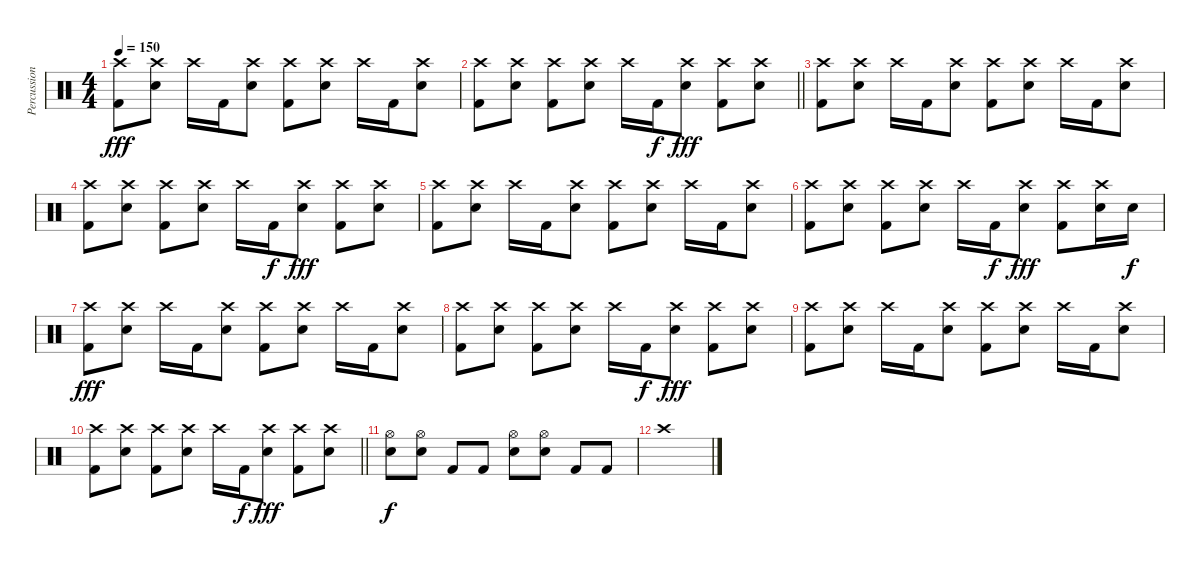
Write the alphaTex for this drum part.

\track ("Percussion" "Percussion") {instrument percussion}
\staff {score}
\articulation defaults
\ts (4 4)
\tempo 150
\clef neutral
\ks c
("Crash high (hit)" "Kick (hit) 2").8{dy fff} ("Crash high (hit)" "Snare (hit) 2").8 "Crash high (hit)".16 "Kick (hit) 2".16 ("Crash high (hit)" "Snare (hit) 2").8 ("Crash high (hit)" "Kick (hit) 2").8 ("Crash high (hit)" "Snare (hit) 2").8 "Crash high (hit)".16 "Kick (hit) 2".16 ("Crash high (hit)" "Snare (hit) 2").8 |
\barLineRight lightlight
("Crash high (hit)" "Kick (hit) 2").8 ("Crash high (hit)" "Snare (hit) 2").8 ("Crash high (hit)" "Kick (hit) 2").8 ("Crash high (hit)" "Snare (hit) 2").8 "Crash high (hit)".16 "Kick (hit) 2".16{dy f} ("Crash high (hit)" "Snare (hit) 2").8{dy fff} ("Crash high (hit)" "Kick (hit) 2").8 ("Crash high (hit)" "Snare (hit) 2").8 |
("Crash high (hit)" "Kick (hit) 2").8 ("Crash high (hit)" "Snare (hit) 2").8 "Crash high (hit)".16 "Kick (hit) 2".16 ("Crash high (hit)" "Snare (hit) 2").8 ("Crash high (hit)" "Kick (hit) 2").8 ("Crash high (hit)" "Snare (hit) 2").8 "Crash high (hit)".16 "Kick (hit) 2".16 ("Crash high (hit)" "Snare (hit) 2").8 |
("Crash high (hit)" "Kick (hit) 2").8 ("Crash high (hit)" "Snare (hit) 2").8 ("Crash high (hit)" "Kick (hit) 2").8 ("Crash high (hit)" "Snare (hit) 2").8 "Crash high (hit)".16 "Kick (hit) 2".16{dy f} ("Crash high (hit)" "Snare (hit) 2").8{dy fff} ("Crash high (hit)" "Kick (hit) 2").8 ("Crash high (hit)" "Snare (hit) 2").8 |
("Crash high (hit)" "Kick (hit) 2").8 ("Crash high (hit)" "Snare (hit) 2").8 "Crash high (hit)".16 "Kick (hit) 2".16 ("Crash high (hit)" "Snare (hit) 2").8 ("Crash high (hit)" "Kick (hit) 2").8 ("Crash high (hit)" "Snare (hit) 2").8 "Crash high (hit)".16 "Kick (hit) 2".16 ("Crash high (hit)" "Snare (hit) 2").8 |
("Crash high (hit)" "Kick (hit) 2").8 ("Crash high (hit)" "Snare (hit) 2").8 ("Crash high (hit)" "Kick (hit) 2").8 ("Crash high (hit)" "Snare (hit) 2").8 "Crash high (hit)".16 "Kick (hit) 2".16{dy f} ("Crash high (hit)" "Snare (hit) 2").8{dy fff} ("Crash high (hit)" "Kick (hit) 2").8 ("Crash high (hit)" "Snare (hit) 2").16 "Snare (hit) 2".16{dy f} |
("Crash high (hit)" "Kick (hit) 2").8{dy fff} ("Crash high (hit)" "Snare (hit) 2").8 "Crash high (hit)".16 "Kick (hit) 2".16 ("Crash high (hit)" "Snare (hit) 2").8 ("Crash high (hit)" "Kick (hit) 2").8 ("Crash high (hit)" "Snare (hit) 2").8 "Crash high (hit)".16 "Kick (hit) 2".16 ("Crash high (hit)" "Snare (hit) 2").8 |
("Crash high (hit)" "Kick (hit) 2").8 ("Crash high (hit)" "Snare (hit) 2").8 ("Crash high (hit)" "Kick (hit) 2").8 ("Crash high (hit)" "Snare (hit) 2").8 "Crash high (hit)".16 "Kick (hit) 2".16{dy f} ("Crash high (hit)" "Snare (hit) 2").8{dy fff} ("Crash high (hit)" "Kick (hit) 2").8 ("Crash high (hit)" "Snare (hit) 2").8 |
("Crash high (hit)" "Kick (hit) 2").8 ("Crash high (hit)" "Snare (hit) 2").8 "Crash high (hit)".16 "Kick (hit) 2".16 ("Crash high (hit)" "Snare (hit) 2").8 ("Crash high (hit)" "Kick (hit) 2").8 ("Crash high (hit)" "Snare (hit) 2").8 "Crash high (hit)".16 "Kick (hit) 2".16 ("Crash high (hit)" "Snare (hit) 2").8 |
\barLineRight lightlight
("Crash high (hit)" "Kick (hit) 2").8 ("Crash high (hit)" "Snare (hit) 2").8 ("Crash high (hit)" "Kick (hit) 2").8 ("Crash high (hit)" "Snare (hit) 2").8 "Crash high (hit)".16 "Kick (hit) 2".16{dy f} ("Crash high (hit)" "Snare (hit) 2").8{dy fff} ("Crash high (hit)" "Kick (hit) 2").8 ("Crash high (hit)" "Snare (hit) 2").8 |
("Hi-Hat (open)" "Snare (hit) 2").8{dy f} ("Hi-Hat (open)" "Snare (hit) 2").8 "Kick (hit) 2".8 "Kick (hit) 2".8 ("Hi-Hat (open)" "Snare (hit) 2").8 ("Hi-Hat (open)" "Snare (hit) 2").8 "Kick (hit) 2".8 "Kick (hit) 2".8 |
"Crash high (hit)".1
